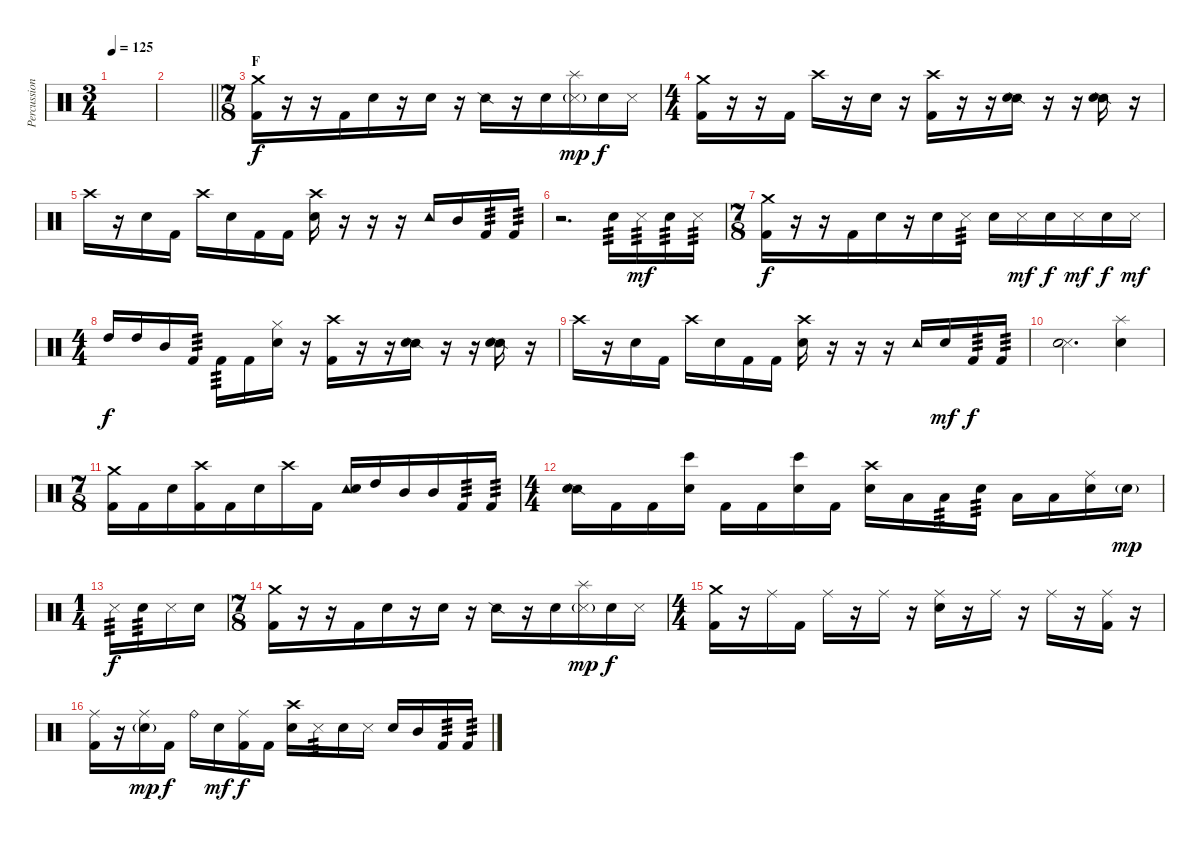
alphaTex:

\track ("Percussion" "Percussion") {instrument percussion}
\staff {score}
\articulation defaults
\ts (3 4)
\tempo 125
\clef neutral
\ks c
|
\barLineRight lightlight
|
\ts (7 8)
\section ("" "F")
("Crash medium (hit)" "Kick (hit) 2").16 r.16 r.16 "Kick (hit) 2".16 "Snare (hit)".16 r.16 "Snare (hit) 2".16 r.16 "Snare (side stick) 2".16 r.16 "Snare (hit) 2".16 ("Splash (hit)" "Metronome (hit)"{g}).16{dy mp} "Snare (hit) 2".16{dy f} "Metronome (hit)".16 |
\ts (4 4)
("Crash medium (hit)" "Kick (hit) 2").16 r.16 r.16 "Kick (hit) 2".16 "Crash high (hit)".16 r.16 "Snare (hit) 2".16 r.16 ("Crash high (hit)" "Kick (hit) 2").16 r.16 r.16 ("Snare (side stick) 2" "Snare (hit) 2").16 r.16 r.16 ("Snare (side stick) 2" "Snare (hit) 2").16 r.16 |
"Crash high (hit)".16 r.16 "Snare (hit) 2".16 "Kick (hit) 2".16 "Crash high (hit)".16 "Snare (hit) 2".16 "Kick (hit) 2".16 "Kick (hit) 2".16 ("Crash high (hit)" "Snare (hit) 2").16 r.16 r.16 r.16 "Tambourine (hit)".16 "Mid Tom (hit)".16 "Kick (hit) 2".16{tp 3} "Kick (hit) 2".16{tp 3} |
r.2{d} "Snare (hit) 2".16{tp 3} "Metronome (hit)".16{tp 3 dy mf} "Snare (hit) 2".16{tp 3} "Metronome (hit)".16{tp 3} |
\ts (7 8)
("Crash medium (hit)" "Kick (hit) 2").16{dy f} r.16 r.16 "Kick (hit) 2".16 "Snare (hit)".16 r.16 "Snare (hit) 2".16 "Metronome (hit)".16{tp 3} "Snare (hit) 2".16 "Metronome (hit)".16{dy mf} "Snare (hit) 2".16{dy f} "Metronome (hit)".16{dy mf} "Snare (hit) 2".16{dy f} "Metronome (hit)".16{dy mf} |
\ts (4 4)
"High Tom (hit)".16{dy f} "High Tom (hit)".16 "Mid Tom (hit)".16 "Kick (hit) 2".16{tp 3} "Kick (hit) 2".16{tp 3} "Kick (hit) 2".16 ("Hi-Hat (closed)" "Snare (hit) 2").16 r.16 ("Crash high (hit)" "Kick (hit) 2").16 r.16 r.16 ("Snare (side stick) 2" "Snare (hit) 2").16 r.16 r.16 ("Snare (side stick) 2" "Snare (hit) 2").16 r.16 |
"Crash high (hit)".16 r.16 "Snare (hit) 2".16 "Kick (hit) 2".16 "Crash high (hit)".16 "Snare (hit) 2".16 "Kick (hit) 2".16 "Kick (hit) 2".16 ("Crash high (hit)" "Snare (hit) 2").16 r.16 r.16 r.16 "Tambourine (hit)".16 "Snare (hit) 2".16{dy mf} "Kick (hit) 2".16{tp 3 dy f} "Kick (hit) 2".16{tp 3} |
("Metronome (hit)" "Snare (hit) 2").2{d bu 60} ("Splash (hit)" "Snare (hit) 2").4 |
\ts (7 8)
("Crash medium (hit)" "Kick (hit) 2").16 "Kick (hit) 2".16 "Snare (hit) 2".16 ("Crash high (hit)" "Kick (hit) 2").16 "Kick (hit) 2".16 "Snare (hit) 2".16 "Crash high (hit)".16 "Kick (hit) 2".16 ("Tambourine (hit)" "Snare (hit) 2").16 "High Tom (hit)".16 "Mid Tom (hit)".16 "Mid Tom (hit)".16 "Kick (hit) 2".16{tp 3} "Kick (hit) 2".16{tp 3} |
\ts (4 4)
("Snare (side stick) 2" "Snare (hit) 2").16 "Kick (hit) 2".16 "Kick (hit) 2".16 ("Bongo High (hit)" "Snare (hit) 2").16 "Kick (hit) 2".16 "Kick (hit) 2".16 ("Bongo High (hit)" "Snare (hit) 2").16 "Kick (hit) 2".16 ("Crash high (hit)" "Snare (hit) 2").16 "Low Tom (hit)".16 "Low Tom (hit)".16{tp 3} "Snare (hit) 2".16{tp 3} "Low Floor Tom (hit)".16 "Low Floor Tom (hit)".16 ("Ride (middle)" "Snare (hit) 2").16 "Snare (hit) 2"{g}.16{dy mp} |
\ts (1 4)
"Metronome (hit)".16{tp 3 dy f} "Snare (hit) 2".16{tp 3} "Metronome (hit)".16 "Snare (hit) 2".16 |
\ts (7 8)
("Crash medium (hit)" "Kick (hit) 2").16 r.16 r.16 "Kick (hit) 2".16 "Snare (hit)".16 r.16 "Snare (hit) 2".16 r.16 "Snare (side stick) 2".16 r.16 "Snare (hit) 2".16 ("Splash (hit)" "Metronome (hit)"{g}).16{dy mp} "Snare (hit) 2".16{dy f} "Metronome (hit)".16 |
\ts (4 4)
("Crash medium (hit)" "Kick (hit) 2").16 r.16 "Ride (middle)".16 "Kick (hit) 2".16 "Ride (middle)".16 r.16 "Ride (middle)".16 r.16 ("Ride (middle)" "Snare (hit) 2").16 r.16 "Ride (middle)".16 r.16 "Ride (middle)".16 r.16 ("Ride (middle)" "Kick (hit) 2").16 r.16 |
("Ride (middle)" "Kick (hit) 2").16 r.16 ("Ride (middle)" "Snare (hit) 2"{g}).16{dy mp} "Kick (hit) 2".16{dy f} "Ride (bell)".16 "Snare (hit) 2".16{dy mf} ("Ride (middle)" "Kick (hit) 2").16{dy f} "Kick (hit) 2".16 ("Crash high (hit)" "Snare (hit) 2").16 "Metronome (hit)".16{tp 3} "Snare (hit) 2".16 "Metronome (hit)".16 "Snare (hit) 2".16 "Mid Tom (hit)".16 "Kick (hit) 2".16{tp 3} "Kick (hit) 2".16{tp 3}
